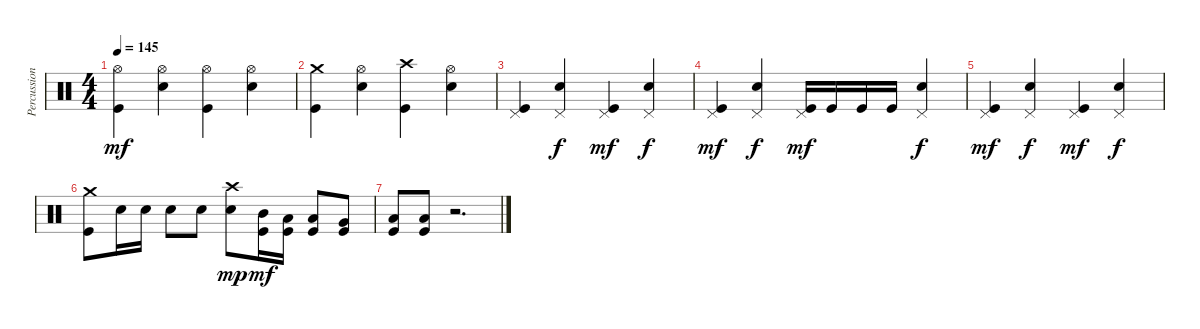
\track ("Percussion" "Percussion") {instrument percussion}
\staff {score}
\articulation defaults
\ts (4 4)
\tempo 145
\clef neutral
\ks c
("Hi-Hat (open)" "Kick (hit)").4{dy mf} ("Hi-Hat (open)" "Electric Snare (hit)").4 ("Hi-Hat (open)" "Kick (hit)").4 ("Hi-Hat (open)" "Electric Snare (hit)").4 |
("Crash medium (hit)" "Kick (hit)").4 ("Hi-Hat (open)" "Electric Snare (hit)").4 ("Crash high (hit)" "Kick (hit)").4 ("Hi-Hat (open)" "Electric Snare (hit)").4 |
("Pedal Hi-Hat (hit)" "Kick (hit)").4 ("Pedal Hi-Hat (hit)" "Electric Snare (hit)").4{dy f} ("Pedal Hi-Hat (hit)" "Kick (hit)").4{dy mf} ("Pedal Hi-Hat (hit)" "Electric Snare (hit)").4{dy f} |
("Pedal Hi-Hat (hit)" "Kick (hit)").4{dy mf} ("Pedal Hi-Hat (hit)" "Electric Snare (hit)").4{dy f} ("Pedal Hi-Hat (hit)" "Kick (hit)").16{dy mf} "Kick (hit)".16 "Kick (hit)".16 "Kick (hit)".16 ("Pedal Hi-Hat (hit)" "Electric Snare (hit)").4{dy f} |
("Pedal Hi-Hat (hit)" "Kick (hit)").4{dy mf} ("Pedal Hi-Hat (hit)" "Electric Snare (hit)").4{dy f} ("Pedal Hi-Hat (hit)" "Kick (hit)").4{dy mf} ("Pedal Hi-Hat (hit)" "Electric Snare (hit)").4{dy f} |
("Crash medium (hit)" "Kick (hit)").8 "Electric Snare (hit)".16 "Electric Snare (hit)".16 "Electric Snare (hit)".8 "Electric Snare (hit)".8 ("Crash high (hit)" "Electric Snare (hit)").8{dy mp} ("Kick (hit)" "Mid Tom (hit)").16{dy mf} ("Kick (hit)" "Low Tom (hit)").16 ("Kick (hit)" "Low Tom (hit)").8 ("Kick (hit)" "Very Low Tom (hit)").8 |
("Kick (hit)" "Low Tom (hit)").8 ("Kick (hit)" "Low Tom (hit)").8 r.2{d}
